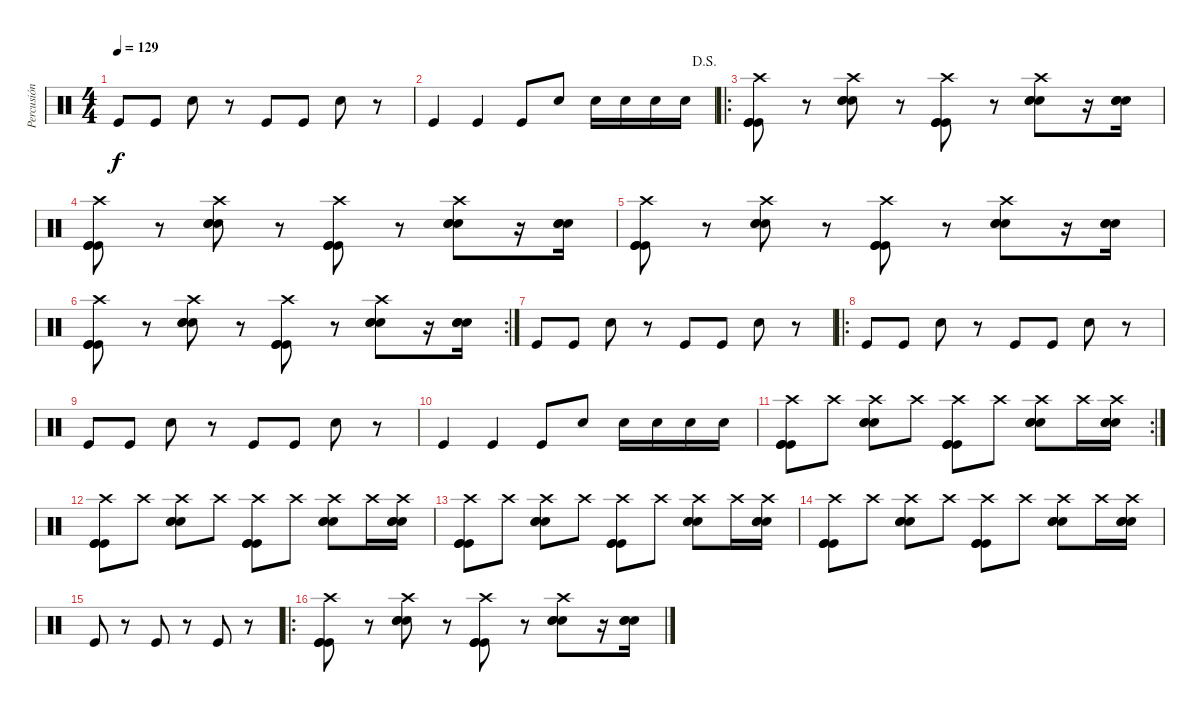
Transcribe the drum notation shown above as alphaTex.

\track ("Percusión" "Percusión") {instrument percussion}
\staff {score}
\articulation defaults
\ts (4 4)
\tempo 129
\clef neutral
\ks c "Kick (hit)".8{dy f} "Kick (hit)".8 "Electric Snare (hit)".8
r.8 "Kick (hit)".8 "Kick (hit)".8 "Electric Snare (hit)".8 r.8 |
\jump dalsegno "Kick (hit)".4 "Kick (hit)".4 "Kick (hit)".8 "Electric Snare (hit)".8 "Electric Snare (hit)".16 "Electric Snare (hit)".16 "Electric Snare (hit)".16 "Electric Snare (hit)".16
|
\ro
("Crash high (hit)" "Kick (hit)" "Kick (hit)" "Kick (hit)").8 r.8 ("Crash high (hit)" "Electric Snare (hit)" "Electric Snare (hit)" "Electric Snare (hit)").8 r.8 ("Crash high (hit)" "Kick (hit)" "Kick (hit)" "Kick (hit)").8 r.8 ("Crash high (hit)" "Electric Snare (hit)" "Electric Snare (hit)" "Electric Snare (hit)").8 r.16 ("Electric Snare (hit)" "Electric Snare (hit)" "Electric Snare (hit)").16 |
("Crash high (hit)" "Kick (hit)" "Kick (hit)" "Kick (hit)").8 r.8 ("Crash high (hit)" "Electric Snare (hit)" "Electric Snare (hit)" "Electric Snare (hit)").8 r.8 ("Crash high (hit)" "Kick (hit)" "Kick (hit)" "Kick (hit)").8 r.8 ("Crash high (hit)" "Electric Snare (hit)" "Electric Snare (hit)" "Electric Snare (hit)").8 r.16 ("Electric Snare (hit)" "Electric Snare (hit)" "Electric Snare (hit)").16 |
("Crash high (hit)" "Kick (hit)" "Kick (hit)" "Kick (hit)").8 r.8 ("Crash high (hit)" "Electric Snare (hit)" "Electric Snare (hit)" "Electric Snare (hit)").8 r.8 ("Crash high (hit)" "Kick (hit)" "Kick (hit)" "Kick (hit)").8 r.8 ("Crash high (hit)" "Electric Snare (hit)" "Electric Snare (hit)" "Electric Snare (hit)").8 r.16 ("Electric Snare (hit)" "Electric Snare (hit)" "Electric Snare (hit)").16 |
\rc 2
("Crash high (hit)" "Kick (hit)" "Kick (hit)" "Kick (hit)").8 r.8 ("Crash high (hit)" "Electric Snare (hit)" "Electric Snare (hit)" "Electric Snare (hit)").8 r.8 ("Crash high (hit)" "Kick (hit)" "Kick (hit)" "Kick (hit)").8 r.8 ("Crash high (hit)" "Electric Snare (hit)" "Electric Snare (hit)" "Electric Snare (hit)").8 r.16 ("Electric Snare (hit)" "Electric Snare (hit)" "Electric Snare (hit)").16 |
"Kick (hit)".8 "Kick (hit)".8 "Electric Snare (hit)".8 r.8 "Kick (hit)".8 "Kick (hit)".8 "Electric Snare (hit)".8 r.8 |
\ro "Kick (hit)".8 "Kick (hit)".8 "Electric Snare (hit)".8
r.8 "Kick (hit)".8 "Kick (hit)".8 "Electric Snare (hit)".8 r.8 |
"Kick (hit)".8 "Kick (hit)".8 "Electric Snare (hit)".8 r.8 "Kick (hit)".8 "Kick (hit)".8 "Electric Snare (hit)".8 r.8 |
"Kick (hit)".4 "Kick (hit)".4 "Kick (hit)".8 "Electric Snare (hit)".8 "Electric Snare (hit)".16 "Electric Snare (hit)".16 "Electric Snare (hit)".16 "Electric Snare (hit)".16 |
\rc 2
("Crash high (hit)" "Kick (hit)" "Kick (hit)" "Kick (hit)").8 "Crash high (hit)".8 ("Crash high (hit)" "Electric Snare (hit)" "Electric Snare (hit)" "Electric Snare (hit)").8 "Crash high (hit)".8 ("Crash high (hit)" "Kick (hit)" "Kick (hit)" "Kick (hit)").8 "Crash high (hit)".8 ("Crash high (hit)" "Electric Snare (hit)" "Electric Snare (hit)" "Electric Snare (hit)").8 "Crash high (hit)".16 ("Crash high (hit)" "Electric Snare (hit)" "Electric Snare (hit)" "Electric Snare (hit)").16 |
("Crash high (hit)" "Kick (hit)" "Kick (hit)" "Kick (hit)").8 "Crash high (hit)".8 ("Crash high (hit)" "Electric Snare (hit)" "Electric Snare (hit)" "Electric Snare (hit)").8 "Crash high (hit)".8 ("Crash high (hit)" "Kick (hit)" "Kick (hit)" "Kick (hit)").8 "Crash high (hit)".8 ("Crash high (hit)" "Electric Snare (hit)" "Electric Snare (hit)" "Electric Snare (hit)").8 "Crash high (hit)".16 ("Crash high (hit)" "Electric Snare (hit)" "Electric Snare (hit)" "Electric Snare (hit)").16 |
("Crash high (hit)" "Kick (hit)" "Kick (hit)" "Kick (hit)").8 "Crash high (hit)".8 ("Crash high (hit)" "Electric Snare (hit)" "Electric Snare (hit)" "Electric Snare (hit)").8 "Crash high (hit)".8 ("Crash high (hit)" "Kick (hit)" "Kick (hit)" "Kick (hit)").8 "Crash high (hit)".8 ("Crash high (hit)" "Electric Snare (hit)" "Electric Snare (hit)" "Electric Snare (hit)").8 "Crash high (hit)".16 ("Crash high (hit)" "Electric Snare (hit)" "Electric Snare (hit)" "Electric Snare (hit)").16 |
("Crash high (hit)" "Kick (hit)" "Kick (hit)" "Kick (hit)").8 "Crash high (hit)".8 ("Crash high (hit)" "Electric Snare (hit)" "Electric Snare (hit)" "Electric Snare (hit)").8 "Crash high (hit)".8 ("Crash high (hit)" "Kick (hit)" "Kick (hit)" "Kick (hit)").8 "Crash high (hit)".8 ("Crash high (hit)" "Electric Snare (hit)" "Electric Snare (hit)" "Electric Snare (hit)").8 "Crash high (hit)".16 ("Crash high (hit)" "Electric Snare (hit)" "Electric Snare (hit)" "Electric Snare (hit)").16 |
"Kick (hit)".8 r.8 "Kick (hit)".8 r.8 "Kick (hit)".8 r.8 |
\ro
("Crash high (hit)" "Kick (hit)" "Kick (hit)" "Kick (hit)").8 r.8 ("Crash high (hit)" "Electric Snare (hit)" "Electric Snare (hit)" "Electric Snare (hit)").8 r.8 ("Crash high (hit)" "Kick (hit)" "Kick (hit)" "Kick (hit)").8 r.8 ("Crash high (hit)" "Electric Snare (hit)" "Electric Snare (hit)" "Electric Snare (hit)").8 r.16 ("Electric Snare (hit)" "Electric Snare (hit)" "Electric Snare (hit)").16
